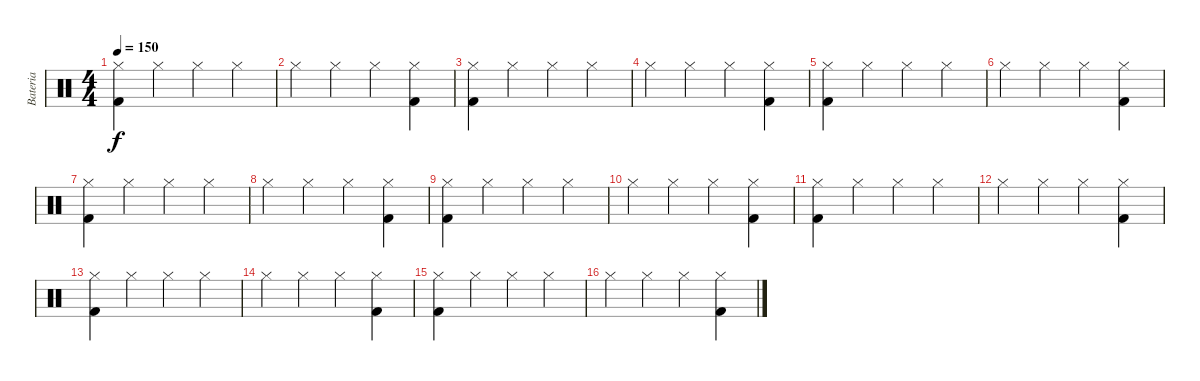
\track ("Bateria" "Bateria") {instrument percussion}
\staff {score}
\articulation defaults
\ts (4 4)
\tempo 150
\clef neutral
\ks c
("Hi-Hat (closed)" "Kick (hit) 2").4{dy f} "Hi-Hat (closed)".4 "Hi-Hat (closed)".4 "Hi-Hat (closed)".4 |
"Hi-Hat (closed)".4 "Hi-Hat (closed)".4 "Hi-Hat (closed)".4 ("Hi-Hat (closed)" "Kick (hit) 2").4 |
("Hi-Hat (closed)" "Kick (hit) 2").4 "Hi-Hat (closed)".4 "Hi-Hat (closed)".4 "Hi-Hat (closed)".4 |
"Hi-Hat (closed)".4 "Hi-Hat (closed)".4 "Hi-Hat (closed)".4 ("Hi-Hat (closed)" "Kick (hit) 2").4 |
("Hi-Hat (closed)" "Kick (hit) 2").4 "Hi-Hat (closed)".4 "Hi-Hat (closed)".4 "Hi-Hat (closed)".4 |
"Hi-Hat (closed)".4 "Hi-Hat (closed)".4 "Hi-Hat (closed)".4 ("Hi-Hat (closed)" "Kick (hit) 2").4 |
("Hi-Hat (closed)" "Kick (hit) 2").4 "Hi-Hat (closed)".4 "Hi-Hat (closed)".4 "Hi-Hat (closed)".4 |
"Hi-Hat (closed)".4 "Hi-Hat (closed)".4 "Hi-Hat (closed)".4 ("Hi-Hat (closed)" "Kick (hit) 2").4 |
("Hi-Hat (closed)" "Kick (hit) 2").4 "Hi-Hat (closed)".4 "Hi-Hat (closed)".4 "Hi-Hat (closed)".4 |
"Hi-Hat (closed)".4 "Hi-Hat (closed)".4 "Hi-Hat (closed)".4 ("Hi-Hat (closed)" "Kick (hit) 2").4 |
("Hi-Hat (closed)" "Kick (hit) 2").4 "Hi-Hat (closed)".4 "Hi-Hat (closed)".4 "Hi-Hat (closed)".4 |
"Hi-Hat (closed)".4 "Hi-Hat (closed)".4 "Hi-Hat (closed)".4 ("Hi-Hat (closed)" "Kick (hit) 2").4 |
("Hi-Hat (closed)" "Kick (hit) 2").4 "Hi-Hat (closed)".4 "Hi-Hat (closed)".4 "Hi-Hat (closed)".4 |
"Hi-Hat (closed)".4 "Hi-Hat (closed)".4 "Hi-Hat (closed)".4 ("Hi-Hat (closed)" "Kick (hit) 2").4 |
("Hi-Hat (closed)" "Kick (hit) 2").4 "Hi-Hat (closed)".4 "Hi-Hat (closed)".4 "Hi-Hat (closed)".4 |
"Hi-Hat (closed)".4 "Hi-Hat (closed)".4 "Hi-Hat (closed)".4 ("Hi-Hat (closed)" "Kick (hit) 2").4
